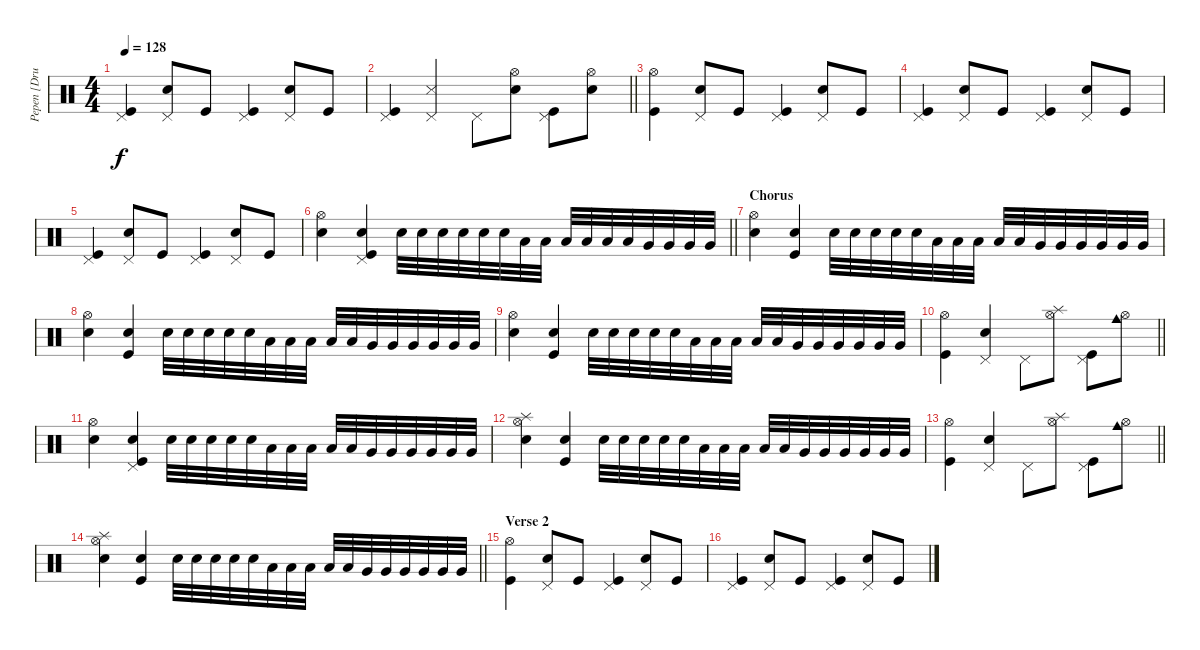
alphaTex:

\track ("Pepen [Drum]" "Pepen [Dru") {instrument percussion}
\staff {score}
\articulation defaults
\ts (4 4)
\tempo 128
\clef neutral
\ks c
("Pedal Hi-Hat (hit)" "Kick (hit)").4{dy f} ("Pedal Hi-Hat (hit)" "Electric Snare (hit)").8 "Kick (hit)".8 ("Pedal Hi-Hat (hit)" "Kick (hit)").4 ("Pedal Hi-Hat (hit)" "Electric Snare (hit)").8 "Kick (hit)".8 |
\barLineRight lightlight
("Pedal Hi-Hat (hit)" "Kick (hit)").4 ("Pedal Hi-Hat (hit)" "Snare (side stick) 3").4 "Pedal Hi-Hat (hit)".8 ("Hi-Hat (open)" "Electric Snare (hit)").8 ("Pedal Hi-Hat (hit)" "Kick (hit)").8 ("Hi-Hat (open)" "Electric Snare (hit)").8 |
("Hi-Hat (open)" "Kick (hit)").4 ("Pedal Hi-Hat (hit)" "Electric Snare (hit)").8 "Kick (hit)".8 ("Pedal Hi-Hat (hit)" "Kick (hit)").4 ("Pedal Hi-Hat (hit)" "Electric Snare (hit)").8 "Kick (hit)".8 |
("Pedal Hi-Hat (hit)" "Kick (hit)").4 ("Pedal Hi-Hat (hit)" "Electric Snare (hit)").8 "Kick (hit)".8 ("Pedal Hi-Hat (hit)" "Kick (hit)").4 ("Pedal Hi-Hat (hit)" "Electric Snare (hit)").8 "Kick (hit)".8 |
("Pedal Hi-Hat (hit)" "Kick (hit)").4 ("Pedal Hi-Hat (hit)" "Electric Snare (hit)").8 "Kick (hit)".8 ("Pedal Hi-Hat (hit)" "Kick (hit)").4 ("Pedal Hi-Hat (hit)" "Electric Snare (hit)").8 "Kick (hit)".8 |
\barLineRight lightlight
("Hi-Hat (open)" "Electric Snare (hit)").4 ("Pedal Hi-Hat (hit)" "Kick (hit)" "Snare (hit) 2").4 "Electric Snare (hit)".32 "Electric Snare (hit)".32 "Electric Snare (hit)".32 "Electric Snare (hit)".32 "Electric Snare (hit)".32 "Electric Snare (hit)".32 "Low Floor Tom (hit)".32 "Low Floor Tom (hit)".32 "Low Floor Tom (hit)".32 "Low Floor Tom (hit)".32 "Low Floor Tom (hit)".32 "Low Floor Tom (hit)".32 "Very Low Tom (hit)".32 "Very Low Tom (hit)".32 "Very Low Tom (hit)".32 "Very Low Tom (hit)".32 |
\section ("" "Chorus")
("Hi-Hat (open)" "Electric Snare (hit)").4 ("Kick (hit)" "Snare (hit) 2").4 "Electric Snare (hit)".32 "Electric Snare (hit)".32 "Electric Snare (hit)".32 "Electric Snare (hit)".32 "Electric Snare (hit)".32 "Low Floor Tom (hit)".32 "Low Floor Tom (hit)".32 "Low Floor Tom (hit)".32 "Low Floor Tom (hit)".32 "Low Floor Tom (hit)".32 "Very Low Tom (hit)".32 "Very Low Tom (hit)".32 "Very Low Tom (hit)".32 "Very Low Tom (hit)".32 "Very Low Tom (hit)".32 "Very Low Tom (hit)".32 |
("Hi-Hat (open)" "Electric Snare (hit)").4 ("Kick (hit)" "Snare (hit) 2").4 "Electric Snare (hit)".32 "Electric Snare (hit)".32 "Electric Snare (hit)".32 "Electric Snare (hit)".32 "Electric Snare (hit)".32 "Low Floor Tom (hit)".32 "Low Floor Tom (hit)".32 "Low Floor Tom (hit)".32 "Low Floor Tom (hit)".32 "Low Floor Tom (hit)".32 "Very Low Tom (hit)".32 "Very Low Tom (hit)".32 "Very Low Tom (hit)".32 "Very Low Tom (hit)".32 "Very Low Tom (hit)".32 "Very Low Tom (hit)".32 |
("Hi-Hat (open)" "Electric Snare (hit)").4 ("Kick (hit)" "Snare (hit) 2").4 "Electric Snare (hit)".32 "Electric Snare (hit)".32 "Electric Snare (hit)".32 "Electric Snare (hit)".32 "Electric Snare (hit)".32 "Low Floor Tom (hit)".32 "Low Floor Tom (hit)".32 "Low Floor Tom (hit)".32 "Low Floor Tom (hit)".32 "Low Floor Tom (hit)".32 "Very Low Tom (hit)".32 "Very Low Tom (hit)".32 "Very Low Tom (hit)".32 "Very Low Tom (hit)".32 "Very Low Tom (hit)".32 "Very Low Tom (hit)".32 |
\barLineRight lightlight
("Hi-Hat (open)" "Kick (hit)").4 ("Pedal Hi-Hat (hit)" "Electric Snare (hit)").4 "Pedal Hi-Hat (hit)".8 ("Hi-Hat (open)" "Splash (hit)").8 ("Pedal Hi-Hat (hit)" "Kick (hit)").8 ("Hi-Hat (open)" "Cowbell medium (hit)").8 |
("Hi-Hat (open)" "Electric Snare (hit)").4 ("Pedal Hi-Hat (hit)" "Kick (hit)" "Snare (hit) 2").4 "Electric Snare (hit)".32 "Electric Snare (hit)".32 "Electric Snare (hit)".32 "Electric Snare (hit)".32 "Electric Snare (hit)".32 "Low Floor Tom (hit)".32 "Low Floor Tom (hit)".32 "Low Floor Tom (hit)".32 "Low Floor Tom (hit)".32 "Low Floor Tom (hit)".32 "Very Low Tom (hit)".32 "Very Low Tom (hit)".32 "Very Low Tom (hit)".32 "Very Low Tom (hit)".32 "Very Low Tom (hit)".32 "Very Low Tom (hit)".32 |
("Hi-Hat (open)" "Splash (hit)" "Electric Snare (hit)").4 ("Kick (hit)" "Snare (hit) 2").4 "Electric Snare (hit)".32 "Electric Snare (hit)".32 "Electric Snare (hit)".32 "Electric Snare (hit)".32 "Electric Snare (hit)".32 "Low Floor Tom (hit)".32 "Low Floor Tom (hit)".32 "Low Floor Tom (hit)".32 "Low Floor Tom (hit)".32 "Low Floor Tom (hit)".32 "Very Low Tom (hit)".32 "Very Low Tom (hit)".32 "Very Low Tom (hit)".32 "Very Low Tom (hit)".32 "Very Low Tom (hit)".32 "Very Low Tom (hit)".32 |
\barLineRight lightlight
("Hi-Hat (open)" "Kick (hit)").4 ("Pedal Hi-Hat (hit)" "Electric Snare (hit)").4 "Pedal Hi-Hat (hit)".8 ("Hi-Hat (open)" "Splash (hit)").8 ("Pedal Hi-Hat (hit)" "Kick (hit)").8 ("Hi-Hat (open)" "Cowbell medium (hit)").8 |
\barLineRight lightlight
("Hi-Hat (open)" "Splash (hit)" "Electric Snare (hit)").4 ("Kick (hit)" "Snare (hit) 2").4 "Electric Snare (hit)".32 "Electric Snare (hit)".32 "Electric Snare (hit)".32 "Electric Snare (hit)".32 "Electric Snare (hit)".32 "Low Floor Tom (hit)".32 "Low Floor Tom (hit)".32 "Low Floor Tom (hit)".32 "Low Floor Tom (hit)".32 "Low Floor Tom (hit)".32 "Very Low Tom (hit)".32 "Very Low Tom (hit)".32 "Very Low Tom (hit)".32 "Very Low Tom (hit)".32 "Very Low Tom (hit)".32 "Very Low Tom (hit)".32 |
\section ("" "Verse 2")
("Hi-Hat (open)" "Kick (hit)").4 ("Pedal Hi-Hat (hit)" "Electric Snare (hit)").8 "Kick (hit)".8 ("Pedal Hi-Hat (hit)" "Kick (hit)").4 ("Pedal Hi-Hat (hit)" "Electric Snare (hit)").8 "Kick (hit)".8 |
("Pedal Hi-Hat (hit)" "Kick (hit)").4 ("Pedal Hi-Hat (hit)" "Electric Snare (hit)").8 "Kick (hit)".8 ("Pedal Hi-Hat (hit)" "Kick (hit)").4 ("Pedal Hi-Hat (hit)" "Electric Snare (hit)").8 "Kick (hit)".8
